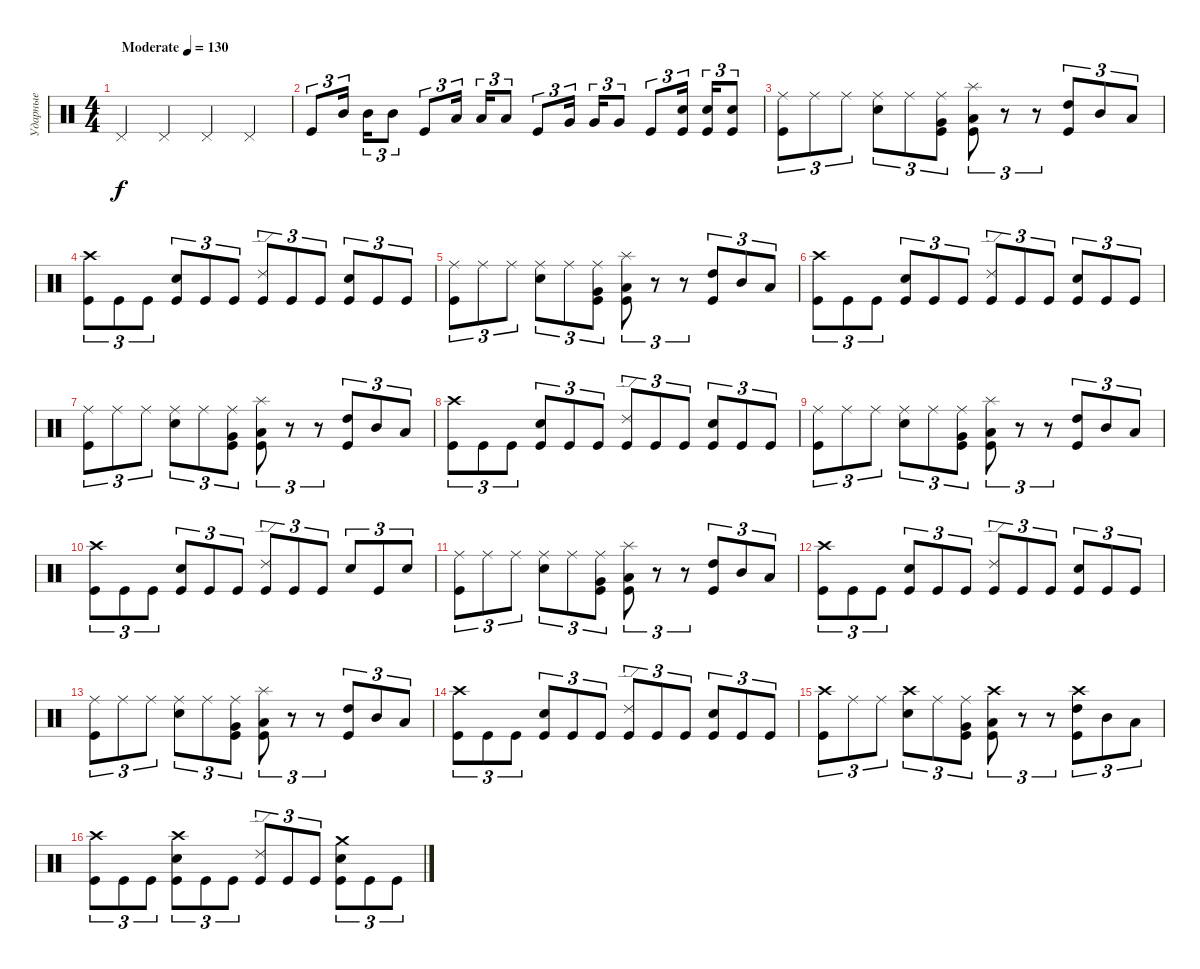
\track ("Ударные" "Ударные") {instrument percussion}
\staff {score}
\articulation defaults
\ts (4 4)
\tempo (130 "Moderate")
\clef neutral
\ks c "Pedal Hi-Hat (hit)".4{dy f} "Pedal Hi-Hat (hit)".4 "Pedal Hi-Hat (hit)".4 "Pedal Hi-Hat (hit)".4
|
"Kick (hit)".8{tu (3 2)} "Mid Tom (hit)".16{tu (3 2) beam splitsecondary} "Mid Tom (hit)".16{tu (3 2)} "Mid Tom (hit)".8{tu (3 2)} "Kick (hit)".8{tu (3 2)} "Low Tom (hit)".16{tu (3 2) beam splitsecondary} "Low Tom (hit)".16{tu (3 2)} "Low Tom (hit)".8{tu (3 2)} "Kick (hit)".8{tu (3 2)} "Very Low Tom (hit)".16{tu (3 2) beam splitsecondary} "Very Low Tom (hit)".16{tu (3 2)} "Very Low Tom (hit)".8{tu (3 2)} "Kick (hit)".8{tu (3 2)} ("Electric Snare (hit)" "Kick (hit)").16{tu (3 2) beam splitsecondary} ("Electric Snare (hit)" "Kick (hit)").16{tu (3 2)} ("Electric Snare (hit)" "Kick (hit)").8{tu (3 2)} |
("Ride (middle)" "Kick (hit)").8{tu (3 2)} "Ride (middle)".8{tu (3 2)} "Ride (middle)".8{tu (3 2)} ("Ride (middle)" "Electric Snare (hit)").8{tu (3 2)} "Ride (middle)".8{tu (3 2)} ("Very Low Tom (hit)" "Ride (middle)" "Kick (hit)").8{tu (3 2)} ("Low Floor Tom (hit)" "Splash (hit)" "Kick (hit)").8{tu (3 2)} r.8{tu (3 2)} r.8{tu (3 2)} ("Kick (hit)" "High Tom (hit)").8{tu (3 2)} "Mid Tom (hit)".8{tu (3 2)} "Low Tom (hit)".8{tu (3 2)} |
("Kick (hit)" "Crash high (hit)").8{tu (3 2)} "Kick (hit)".8{tu (3 2)} "Kick (hit)".8{tu (3 2)} ("Kick (hit)" "Electric Snare (hit)").8{tu (3 2)} "Kick (hit)".8{tu (3 2)} "Kick (hit)".8{tu (3 2)} ("Ride (edge) 2" "Kick (hit)").8{tu (3 2)} "Kick (hit)".8{tu (3 2)} "Kick (hit)".8{tu (3 2)} ("Kick (hit)" "Electric Snare (hit)").8{tu (3 2)} "Kick (hit)".8{tu (3 2)} "Kick (hit)".8{tu (3 2)} |
("Ride (middle)" "Kick (hit)").8{tu (3 2)} "Ride (middle)".8{tu (3 2)} "Ride (middle)".8{tu (3 2)} ("Ride (middle)" "Electric Snare (hit)").8{tu (3 2)} "Ride (middle)".8{tu (3 2)} ("Very Low Tom (hit)" "Ride (middle)" "Kick (hit)").8{tu (3 2)} ("Low Floor Tom (hit)" "Splash (hit)" "Kick (hit)").8{tu (3 2)} r.8{tu (3 2)} r.8{tu (3 2)} ("Kick (hit)" "High Tom (hit)").8{tu (3 2)} "Mid Tom (hit)".8{tu (3 2)} "Low Tom (hit)".8{tu (3 2)} |
("Kick (hit)" "Crash high (hit)").8{tu (3 2)} "Kick (hit)".8{tu (3 2)} "Kick (hit)".8{tu (3 2)} ("Kick (hit)" "Electric Snare (hit)").8{tu (3 2)} "Kick (hit)".8{tu (3 2)} "Kick (hit)".8{tu (3 2)} ("Ride (edge) 2" "Kick (hit)").8{tu (3 2)} "Kick (hit)".8{tu (3 2)} "Kick (hit)".8{tu (3 2)} ("Kick (hit)" "Electric Snare (hit)").8{tu (3 2)} "Kick (hit)".8{tu (3 2)} "Kick (hit)".8{tu (3 2)} |
("Ride (middle)" "Kick (hit)").8{tu (3 2)} "Ride (middle)".8{tu (3 2)} "Ride (middle)".8{tu (3 2)} ("Ride (middle)" "Electric Snare (hit)").8{tu (3 2)} "Ride (middle)".8{tu (3 2)} ("Very Low Tom (hit)" "Ride (middle)" "Kick (hit)").8{tu (3 2)} ("Low Floor Tom (hit)" "Splash (hit)" "Kick (hit)").8{tu (3 2)} r.8{tu (3 2)} r.8{tu (3 2)} ("Kick (hit)" "High Tom (hit)").8{tu (3 2)} "Mid Tom (hit)".8{tu (3 2)} "Low Tom (hit)".8{tu (3 2)} |
("Kick (hit)" "Crash high (hit)").8{tu (3 2)} "Kick (hit)".8{tu (3 2)} "Kick (hit)".8{tu (3 2)} ("Kick (hit)" "Electric Snare (hit)").8{tu (3 2)} "Kick (hit)".8{tu (3 2)} "Kick (hit)".8{tu (3 2)} ("Ride (edge) 2" "Kick (hit)").8{tu (3 2)} "Kick (hit)".8{tu (3 2)} "Kick (hit)".8{tu (3 2)} ("Kick (hit)" "Electric Snare (hit)").8{tu (3 2)} "Kick (hit)".8{tu (3 2)} "Kick (hit)".8{tu (3 2)} |
("Ride (middle)" "Kick (hit)").8{tu (3 2)} "Ride (middle)".8{tu (3 2)} "Ride (middle)".8{tu (3 2)} ("Ride (middle)" "Electric Snare (hit)").8{tu (3 2)} "Ride (middle)".8{tu (3 2)} ("Very Low Tom (hit)" "Ride (middle)" "Kick (hit)").8{tu (3 2)} ("Low Floor Tom (hit)" "Splash (hit)" "Kick (hit)").8{tu (3 2)} r.8{tu (3 2)} r.8{tu (3 2)} ("Kick (hit)" "High Tom (hit)").8{tu (3 2)} "Mid Tom (hit)".8{tu (3 2)} "Low Tom (hit)".8{tu (3 2)} |
("Kick (hit)" "Crash high (hit)").8{tu (3 2)} "Kick (hit)".8{tu (3 2)} "Kick (hit)".8{tu (3 2)} ("Kick (hit)" "Electric Snare (hit)").8{tu (3 2)} "Kick (hit)".8{tu (3 2)} "Kick (hit)".8{tu (3 2)} ("Ride (edge) 2" "Kick (hit)").8{tu (3 2)} "Kick (hit)".8{tu (3 2)} "Kick (hit)".8{tu (3 2)} "Electric Snare (hit)".8{tu (3 2)} "Kick (hit)".8{tu (3 2)} "Electric Snare (hit)".8{tu (3 2)} |
("Ride (middle)" "Kick (hit)").8{tu (3 2)} "Ride (middle)".8{tu (3 2)} "Ride (middle)".8{tu (3 2)} ("Ride (middle)" "Electric Snare (hit)").8{tu (3 2)} "Ride (middle)".8{tu (3 2)} ("Very Low Tom (hit)" "Ride (middle)" "Kick (hit)").8{tu (3 2)} ("Low Floor Tom (hit)" "Splash (hit)" "Kick (hit)").8{tu (3 2)} r.8{tu (3 2)} r.8{tu (3 2)} ("Kick (hit)" "High Tom (hit)").8{tu (3 2)} "Mid Tom (hit)".8{tu (3 2)} "Low Tom (hit)".8{tu (3 2)} |
("Kick (hit)" "Crash high (hit)").8{tu (3 2)} "Kick (hit)".8{tu (3 2)} "Kick (hit)".8{tu (3 2)} ("Kick (hit)" "Electric Snare (hit)").8{tu (3 2)} "Kick (hit)".8{tu (3 2)} "Kick (hit)".8{tu (3 2)} ("Ride (edge) 2" "Kick (hit)").8{tu (3 2)} "Kick (hit)".8{tu (3 2)} "Kick (hit)".8{tu (3 2)} ("Kick (hit)" "Electric Snare (hit)").8{tu (3 2)} "Kick (hit)".8{tu (3 2)} "Kick (hit)".8{tu (3 2)} |
("Ride (middle)" "Kick (hit)").8{tu (3 2)} "Ride (middle)".8{tu (3 2)} "Ride (middle)".8{tu (3 2)} ("Ride (middle)" "Electric Snare (hit)").8{tu (3 2)} "Ride (middle)".8{tu (3 2)} ("Very Low Tom (hit)" "Ride (middle)" "Kick (hit)").8{tu (3 2)} ("Low Floor Tom (hit)" "Splash (hit)" "Kick (hit)").8{tu (3 2)} r.8{tu (3 2)} r.8{tu (3 2)} ("Kick (hit)" "High Tom (hit)").8{tu (3 2)} "Mid Tom (hit)".8{tu (3 2)} "Low Tom (hit)".8{tu (3 2)} |
("Kick (hit)" "Crash high (hit)").8{tu (3 2)} "Kick (hit)".8{tu (3 2)} "Kick (hit)".8{tu (3 2)} ("Kick (hit)" "Electric Snare (hit)").8{tu (3 2)} "Kick (hit)".8{tu (3 2)} "Kick (hit)".8{tu (3 2)} ("Ride (edge) 2" "Kick (hit)").8{tu (3 2)} "Kick (hit)".8{tu (3 2)} "Kick (hit)".8{tu (3 2)} ("Kick (hit)" "Electric Snare (hit)").8{tu (3 2)} "Kick (hit)".8{tu (3 2)} "Kick (hit)".8{tu (3 2)} |
("Crash high (hit)" "Kick (hit)").8{tu (3 2)} "Ride (middle)".8{tu (3 2)} "Ride (middle)".8{tu (3 2)} ("Crash high (hit)" "Electric Snare (hit)").8{tu (3 2)} "Ride (middle)".8{tu (3 2)} ("Very Low Tom (hit)" "Ride (middle)" "Kick (hit)").8{tu (3 2)} ("Low Floor Tom (hit)" "Crash high (hit)" "Kick (hit)").8{tu (3 2)} r.8{tu (3 2)} r.8{tu (3 2)} ("Kick (hit)" "Crash high (hit)" "High Tom (hit)").8{tu (3 2)} "Mid Tom (hit)".8{tu (3 2)} "Low Tom (hit)".8{tu (3 2)} |
("Kick (hit)" "Crash high (hit)").8{tu (3 2)} "Kick (hit)".8{tu (3 2)} "Kick (hit)".8{tu (3 2)} ("Crash high (hit)" "Kick (hit)" "Electric Snare (hit)").8{tu (3 2)} "Kick (hit)".8{tu (3 2)} "Kick (hit)".8{tu (3 2)} ("Ride (edge) 2" "Kick (hit)").8{tu (3 2)} "Kick (hit)".8{tu (3 2)} "Kick (hit)".8{tu (3 2)} ("Crash medium (hit)" "Kick (hit)" "Electric Snare (hit)").8{tu (3 2)} "Kick (hit)".8{tu (3 2)} "Kick (hit)".8{tu (3 2)}
